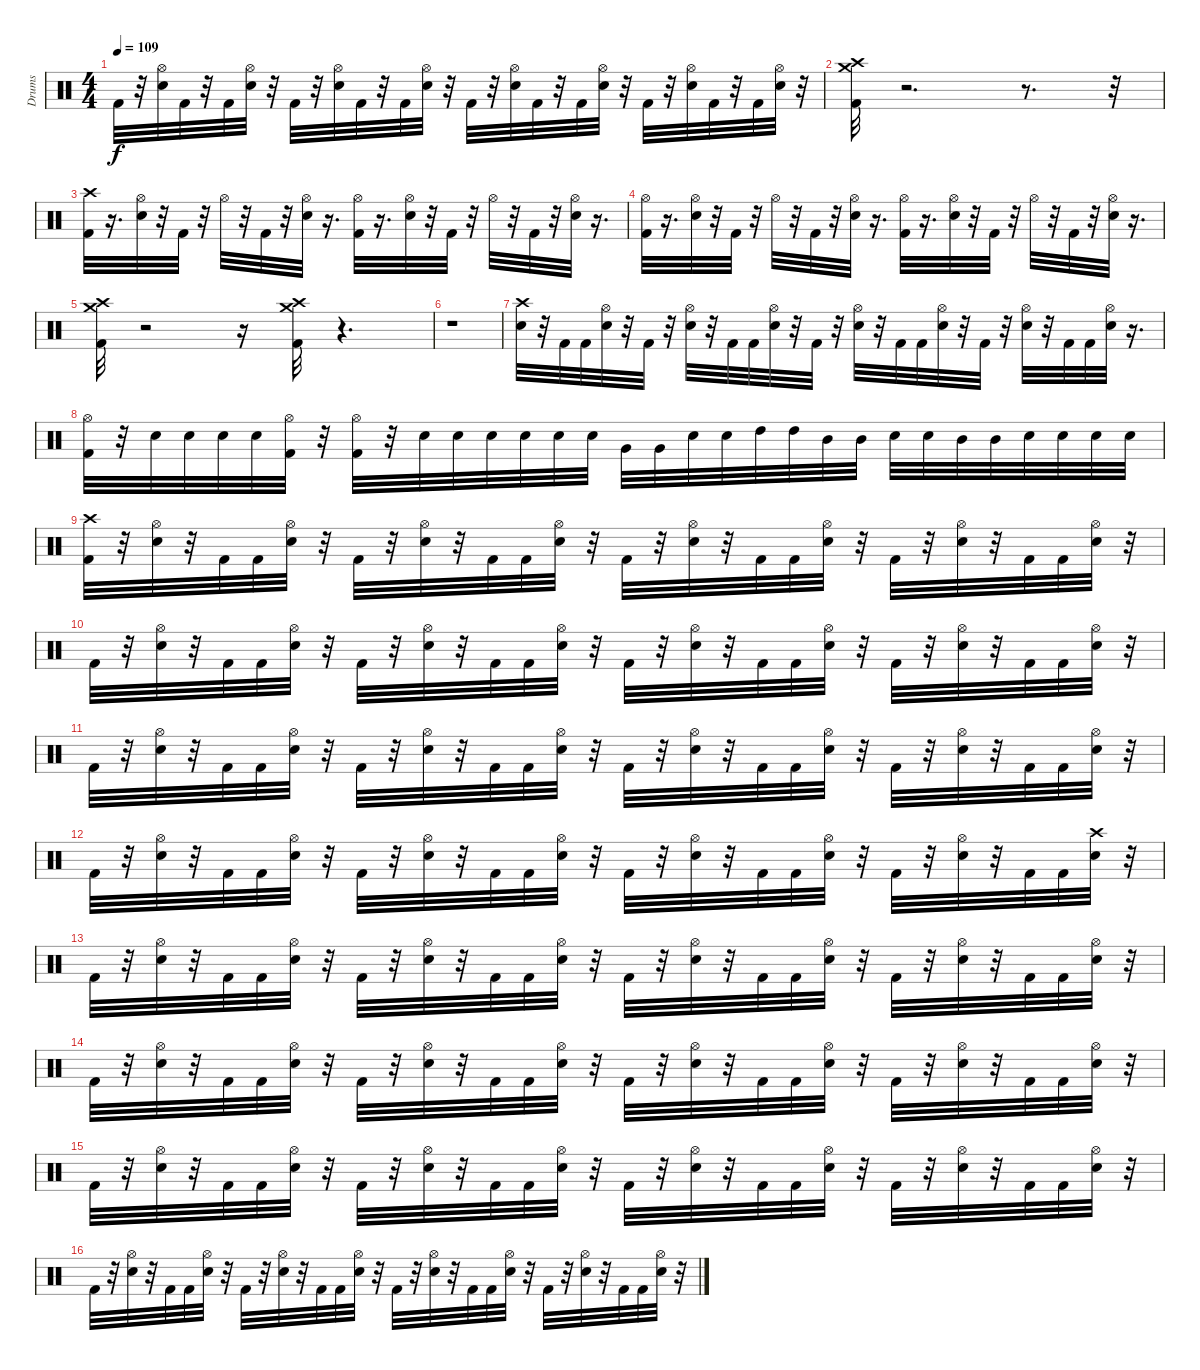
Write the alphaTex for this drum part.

\track ("Drums" "Drums") {instrument percussion}
\staff {score}
\articulation defaults
\ts (4 4)
\tempo 109
\clef neutral
\ks c "Kick (hit) 2".32{dy f}
r.32 ("Hi-Hat (open)" "Electric Snare (hit)").32 "Kick (hit) 2".32 r.32 "Kick (hit) 2".32 ("Hi-Hat (open)" "Electric Snare (hit)").32 r.32 "Kick (hit) 2".32 r.32 ("Hi-Hat (open)" "Electric Snare (hit)").32 "Kick (hit) 2".32 r.32 "Kick (hit) 2".32 ("Hi-Hat (open)" "Electric Snare (hit)").32 r.32 "Kick (hit) 2".32 r.32 ("Hi-Hat (open)" "Electric Snare (hit)").32 "Kick (hit) 2".32 r.32 "Kick (hit) 2".32 ("Hi-Hat (open)" "Electric Snare (hit)").32 r.32 "Kick (hit) 2".32 r.32 ("Hi-Hat (open)" "Electric Snare (hit)").32 "Kick (hit) 2".32 r.32 "Kick (hit) 2".32 ("Hi-Hat (open)" "Electric Snare (hit)").32 r.32 |
("Crash high (hit)" "Crash medium (hit)" "Kick (hit) 2").32 r.2{d} r.8{d} r.32 |
("Crash high (hit)" "Kick (hit) 2").32 r.16{d} ("Hi-Hat (open)" "Electric Snare (hit)").32 r.32 "Kick (hit) 2".32 r.32 "Hi-Hat (open)".32 r.32 "Kick (hit) 2".32 r.32 ("Hi-Hat (open)" "Electric Snare (hit)").32 r.16{d} ("Hi-Hat (open)" "Kick (hit) 2").32 r.16{d} ("Hi-Hat (open)" "Electric Snare (hit)").32 r.32 "Kick (hit) 2".32 r.32 "Hi-Hat (open)".32 r.32 "Kick (hit) 2".32 r.32 ("Hi-Hat (open)" "Electric Snare (hit)").32 r.16{d} |
("Hi-Hat (open)" "Kick (hit) 2").32 r.16{d} ("Hi-Hat (open)" "Electric Snare (hit)").32 r.32 "Kick (hit) 2".32 r.32 "Hi-Hat (open)".32 r.32 "Kick (hit) 2".32 r.32 ("Hi-Hat (open)" "Electric Snare (hit)").32 r.16{d} ("Hi-Hat (open)" "Kick (hit) 2").32 r.16{d} ("Hi-Hat (open)" "Electric Snare (hit)").32 r.32 "Kick (hit) 2".32 r.32 "Hi-Hat (open)".32 r.32 "Kick (hit) 2".32 r.32 ("Hi-Hat (open)" "Electric Snare (hit)").32 r.16{d} |
("Crash medium (hit)" "Crash high (hit)" "Kick (hit) 2").32 r.2 r.16 ("Crash medium (hit)" "Crash high (hit)" "Kick (hit) 2").32 r.4{d} |
r.1 |
("Crash high (hit)" "Electric Snare (hit)").32 r.32 "Kick (hit) 2".32 "Kick (hit) 2".32 ("Hi-Hat (open)" "Electric Snare (hit)").32 r.32 "Kick (hit) 2".32 r.32 ("Hi-Hat (open)" "Electric Snare (hit)").32 r.32 "Kick (hit) 2".32 "Kick (hit) 2".32 ("Hi-Hat (open)" "Electric Snare (hit)").32 r.32 "Kick (hit) 2".32 r.32 ("Hi-Hat (open)" "Electric Snare (hit)").32 r.32 "Kick (hit) 2".32 "Kick (hit) 2".32 ("Hi-Hat (open)" "Electric Snare (hit)").32 r.32 "Kick (hit) 2".32 r.32 ("Hi-Hat (open)" "Electric Snare (hit)").32 r.32 "Kick (hit) 2".32 "Kick (hit) 2".32 ("Hi-Hat (open)" "Electric Snare (hit)").32 r.16{d} |
("Hi-Hat (open)" "Kick (hit) 2").32 r.32 "Electric Snare (hit)".32 "Electric Snare (hit)".32 "Electric Snare (hit)".32 "Electric Snare (hit)".32 ("Hi-Hat (open)" "Kick (hit) 2").32 r.32 ("Hi-Hat (open)" "Kick (hit) 2").32 r.32 "Electric Snare (hit)".32 "Electric Snare (hit)".32 "Electric Snare (hit)".32 "Electric Snare (hit)".32 "Electric Snare (hit)".32 "Electric Snare (hit)".32 "Very Low Tom (hit)".32 "Very Low Tom (hit)".32 "Electric Snare (hit)".32 "Electric Snare (hit)".32 "High Tom (hit)".32 "High Tom (hit)".32 "Mid Tom (hit)".32 "Mid Tom (hit)".32 "Electric Snare (hit)".32 "Electric Snare (hit)".32 "Mid Tom (hit)".32 "Mid Tom (hit)".32 "Electric Snare (hit)".32 "Electric Snare (hit)".32 "Electric Snare (hit)".32 "Electric Snare (hit)".32 |
("Crash high (hit)" "Kick (hit) 2").32 r.32 ("Hi-Hat (open)" "Electric Snare (hit)").32 r.32 "Kick (hit) 2".32 "Kick (hit) 2".32 ("Hi-Hat (open)" "Electric Snare (hit)").32 r.32 "Kick (hit) 2".32 r.32 ("Hi-Hat (open)" "Electric Snare (hit)").32 r.32 "Kick (hit) 2".32 "Kick (hit) 2".32 ("Hi-Hat (open)" "Electric Snare (hit)").32 r.32 "Kick (hit) 2".32 r.32 ("Hi-Hat (open)" "Electric Snare (hit)").32 r.32 "Kick (hit) 2".32 "Kick (hit) 2".32 ("Hi-Hat (open)" "Electric Snare (hit)").32 r.32 "Kick (hit) 2".32 r.32 ("Hi-Hat (open)" "Electric Snare (hit)").32 r.32 "Kick (hit) 2".32 "Kick (hit) 2".32 ("Hi-Hat (open)" "Electric Snare (hit)").32 r.32 |
"Kick (hit) 2".32 r.32 ("Hi-Hat (open)" "Electric Snare (hit)").32 r.32 "Kick (hit) 2".32 "Kick (hit) 2".32 ("Hi-Hat (open)" "Electric Snare (hit)").32 r.32 "Kick (hit) 2".32 r.32 ("Hi-Hat (open)" "Electric Snare (hit)").32 r.32 "Kick (hit) 2".32 "Kick (hit) 2".32 ("Hi-Hat (open)" "Electric Snare (hit)").32 r.32 "Kick (hit) 2".32 r.32 ("Hi-Hat (open)" "Electric Snare (hit)").32 r.32 "Kick (hit) 2".32 "Kick (hit) 2".32 ("Hi-Hat (open)" "Electric Snare (hit)").32 r.32 "Kick (hit) 2".32 r.32 ("Hi-Hat (open)" "Electric Snare (hit)").32 r.32 "Kick (hit) 2".32 "Kick (hit) 2".32 ("Hi-Hat (open)" "Electric Snare (hit)").32 r.32 |
"Kick (hit) 2".32 r.32 ("Hi-Hat (open)" "Electric Snare (hit)").32 r.32 "Kick (hit) 2".32 "Kick (hit) 2".32 ("Hi-Hat (open)" "Electric Snare (hit)").32 r.32 "Kick (hit) 2".32 r.32 ("Hi-Hat (open)" "Electric Snare (hit)").32 r.32 "Kick (hit) 2".32 "Kick (hit) 2".32 ("Hi-Hat (open)" "Electric Snare (hit)").32 r.32 "Kick (hit) 2".32 r.32 ("Hi-Hat (open)" "Electric Snare (hit)").32 r.32 "Kick (hit) 2".32 "Kick (hit) 2".32 ("Hi-Hat (open)" "Electric Snare (hit)").32 r.32 "Kick (hit) 2".32 r.32 ("Hi-Hat (open)" "Electric Snare (hit)").32 r.32 "Kick (hit) 2".32 "Kick (hit) 2".32 ("Hi-Hat (open)" "Electric Snare (hit)").32 r.32 |
"Kick (hit) 2".32 r.32 ("Hi-Hat (open)" "Electric Snare (hit)").32 r.32 "Kick (hit) 2".32 "Kick (hit) 2".32 ("Hi-Hat (open)" "Electric Snare (hit)").32 r.32 "Kick (hit) 2".32 r.32 ("Hi-Hat (open)" "Electric Snare (hit)").32 r.32 "Kick (hit) 2".32 "Kick (hit) 2".32 ("Hi-Hat (open)" "Electric Snare (hit)").32 r.32 "Kick (hit) 2".32 r.32 ("Hi-Hat (open)" "Electric Snare (hit)").32 r.32 "Kick (hit) 2".32 "Kick (hit) 2".32 ("Hi-Hat (open)" "Electric Snare (hit)").32 r.32 "Kick (hit) 2".32 r.32 ("Hi-Hat (open)" "Electric Snare (hit)").32 r.32 "Kick (hit) 2".32 "Kick (hit) 2".32 ("Crash high (hit)" "Electric Snare (hit)").32 r.32 |
"Kick (hit) 2".32 r.32 ("Hi-Hat (open)" "Electric Snare (hit)").32 r.32 "Kick (hit) 2".32 "Kick (hit) 2".32 ("Hi-Hat (open)" "Electric Snare (hit)").32 r.32 "Kick (hit) 2".32 r.32 ("Hi-Hat (open)" "Electric Snare (hit)").32 r.32 "Kick (hit) 2".32 "Kick (hit) 2".32 ("Hi-Hat (open)" "Electric Snare (hit)").32 r.32 "Kick (hit) 2".32 r.32 ("Hi-Hat (open)" "Electric Snare (hit)").32 r.32 "Kick (hit) 2".32 "Kick (hit) 2".32 ("Hi-Hat (open)" "Electric Snare (hit)").32 r.32 "Kick (hit) 2".32 r.32 ("Hi-Hat (open)" "Electric Snare (hit)").32 r.32 "Kick (hit) 2".32 "Kick (hit) 2".32 ("Hi-Hat (open)" "Electric Snare (hit)").32 r.32 |
"Kick (hit) 2".32 r.32 ("Hi-Hat (open)" "Electric Snare (hit)").32 r.32 "Kick (hit) 2".32 "Kick (hit) 2".32 ("Hi-Hat (open)" "Electric Snare (hit)").32 r.32 "Kick (hit) 2".32 r.32 ("Hi-Hat (open)" "Electric Snare (hit)").32 r.32 "Kick (hit) 2".32 "Kick (hit) 2".32 ("Hi-Hat (open)" "Electric Snare (hit)").32 r.32 "Kick (hit) 2".32 r.32 ("Hi-Hat (open)" "Electric Snare (hit)").32 r.32 "Kick (hit) 2".32 "Kick (hit) 2".32 ("Hi-Hat (open)" "Electric Snare (hit)").32 r.32 "Kick (hit) 2".32 r.32 ("Hi-Hat (open)" "Electric Snare (hit)").32 r.32 "Kick (hit) 2".32 "Kick (hit) 2".32 ("Hi-Hat (open)" "Electric Snare (hit)").32 r.32 |
"Kick (hit) 2".32 r.32 ("Hi-Hat (open)" "Electric Snare (hit)").32 r.32 "Kick (hit) 2".32 "Kick (hit) 2".32 ("Hi-Hat (open)" "Electric Snare (hit)").32 r.32 "Kick (hit) 2".32 r.32 ("Hi-Hat (open)" "Electric Snare (hit)").32 r.32 "Kick (hit) 2".32 "Kick (hit) 2".32 ("Hi-Hat (open)" "Electric Snare (hit)").32 r.32 "Kick (hit) 2".32 r.32 ("Hi-Hat (open)" "Electric Snare (hit)").32 r.32 "Kick (hit) 2".32 "Kick (hit) 2".32 ("Hi-Hat (open)" "Electric Snare (hit)").32 r.32 "Kick (hit) 2".32 r.32 ("Hi-Hat (open)" "Electric Snare (hit)").32 r.32 "Kick (hit) 2".32 "Kick (hit) 2".32 ("Hi-Hat (open)" "Electric Snare (hit)").32 r.32 |
"Kick (hit) 2".32 r.32 ("Hi-Hat (open)" "Electric Snare (hit)").32 r.32 "Kick (hit) 2".32 "Kick (hit) 2".32 ("Hi-Hat (open)" "Electric Snare (hit)").32 r.32 "Kick (hit) 2".32 r.32 ("Hi-Hat (open)" "Electric Snare (hit)").32 r.32 "Kick (hit) 2".32 "Kick (hit) 2".32 ("Hi-Hat (open)" "Electric Snare (hit)").32 r.32 "Kick (hit) 2".32 r.32 ("Hi-Hat (open)" "Electric Snare (hit)").32 r.32 "Kick (hit) 2".32 "Kick (hit) 2".32 ("Hi-Hat (open)" "Electric Snare (hit)").32 r.32 "Kick (hit) 2".32 r.32 ("Hi-Hat (open)" "Electric Snare (hit)").32 r.32 "Kick (hit) 2".32 "Kick (hit) 2".32 ("Hi-Hat (open)" "Electric Snare (hit)").32 r.32
